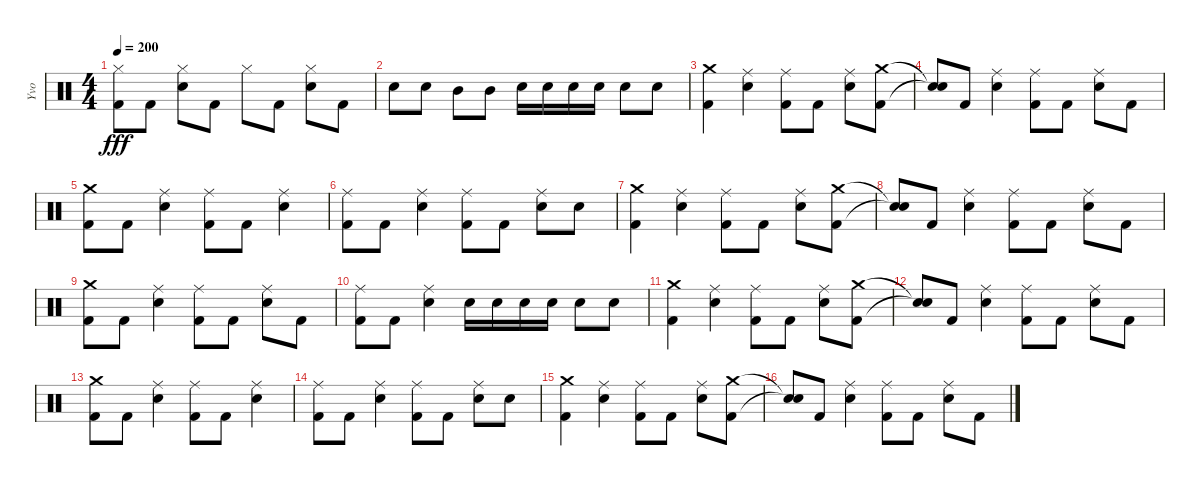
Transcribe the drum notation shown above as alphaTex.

\track ("Yvo" "Yvo") {instrument percussion}
\staff {score}
\articulation defaults
\ts (4 4)
\tempo 200
\clef neutral
\ks c
("Hi-Hat (closed)" "Kick (hit) 2").8{dy fff} "Kick (hit) 2".8 ("Hi-Hat (closed)" "Electric Snare (hit)").8 "Kick (hit) 2".8 "Hi-Hat (closed)".8 "Kick (hit) 2".8 ("Hi-Hat (closed)" "Electric Snare (hit)").8 "Kick (hit) 2".8 |
"Electric Snare (hit)".8 "Electric Snare (hit)".8 "Mid Tom (hit)".8 "Mid Tom (hit)".8 "Electric Snare (hit)".16 "Electric Snare (hit)".16 "Electric Snare (hit)".16 "Electric Snare (hit)".16 "Electric Snare (hit)".8 "Electric Snare (hit)".8 |
("Crash medium (hit)" "Kick (hit) 2").4 ("Ride (middle)" "Electric Snare (hit)").4 ("Ride (middle)" "Kick (hit) 2").8 "Kick (hit) 2".8 ("Ride (middle)" "Electric Snare (hit)").8 ("Crash medium (hit)" "Kick (hit) 2").8 |
("Snare (hit)"{t} "Snare (hit)"{t}).8 "Kick (hit) 2".8 ("Ride (middle)" "Electric Snare (hit)").4 ("Ride (middle)" "Kick (hit) 2").8 "Kick (hit) 2".8 ("Ride (middle)" "Electric Snare (hit)").8 "Kick (hit) 2".8 |
("Crash medium (hit)" "Kick (hit) 2").8 "Kick (hit) 2".8 ("Ride (middle)" "Electric Snare (hit)").4 ("Ride (middle)" "Kick (hit) 2").8 "Kick (hit) 2".8 ("Ride (middle)" "Electric Snare (hit)").4 |
("Ride (middle)" "Kick (hit) 2").8 "Kick (hit) 2".8 ("Ride (middle)" "Electric Snare (hit)").4 ("Ride (middle)" "Kick (hit) 2").8 "Kick (hit) 2".8 ("Ride (middle)" "Electric Snare (hit)").8 "Electric Snare (hit)".8 |
("Crash medium (hit)" "Kick (hit) 2").4 ("Ride (middle)" "Electric Snare (hit)").4 ("Ride (middle)" "Kick (hit) 2").8 "Kick (hit) 2".8 ("Ride (middle)" "Electric Snare (hit)").8 ("Crash medium (hit)" "Kick (hit) 2").8 |
("Snare (hit)"{t} "Snare (hit)"{t}).8 "Kick (hit) 2".8 ("Ride (middle)" "Electric Snare (hit)").4 ("Ride (middle)" "Kick (hit) 2").8 "Kick (hit) 2".8 ("Ride (middle)" "Electric Snare (hit)").8 "Kick (hit) 2".8 |
("Crash medium (hit)" "Kick (hit) 2").8 "Kick (hit) 2".8 ("Ride (middle)" "Electric Snare (hit)").4 ("Ride (middle)" "Kick (hit) 2").8 "Kick (hit) 2".8 ("Ride (middle)" "Electric Snare (hit)").8 "Kick (hit) 2".8 |
("Ride (middle)" "Kick (hit) 2").8 "Kick (hit) 2".8 ("Ride (middle)" "Electric Snare (hit)").4 "Electric Snare (hit)".16 "Electric Snare (hit)".16 "Electric Snare (hit)".16 "Electric Snare (hit)".16 "Electric Snare (hit)".8 "Electric Snare (hit)".8 |
("Crash medium (hit)" "Kick (hit) 2").4 ("Ride (middle)" "Electric Snare (hit)").4 ("Ride (middle)" "Kick (hit) 2").8 "Kick (hit) 2".8 ("Ride (middle)" "Electric Snare (hit)").8 ("Crash medium (hit)" "Kick (hit) 2").8 |
("Snare (hit)"{t} "Snare (hit)"{t}).8 "Kick (hit) 2".8 ("Ride (middle)" "Electric Snare (hit)").4 ("Ride (middle)" "Kick (hit) 2").8 "Kick (hit) 2".8 ("Ride (middle)" "Electric Snare (hit)").8 "Kick (hit) 2".8 |
("Crash medium (hit)" "Kick (hit) 2").8 "Kick (hit) 2".8 ("Ride (middle)" "Electric Snare (hit)").4 ("Ride (middle)" "Kick (hit) 2").8 "Kick (hit) 2".8 ("Ride (middle)" "Electric Snare (hit)").4 |
("Ride (middle)" "Kick (hit) 2").8 "Kick (hit) 2".8 ("Ride (middle)" "Electric Snare (hit)").4 ("Ride (middle)" "Kick (hit) 2").8 "Kick (hit) 2".8 ("Ride (middle)" "Electric Snare (hit)").8 "Electric Snare (hit)".8 |
("Crash medium (hit)" "Kick (hit) 2").4 ("Ride (middle)" "Electric Snare (hit)").4 ("Ride (middle)" "Kick (hit) 2").8 "Kick (hit) 2".8 ("Ride (middle)" "Electric Snare (hit)").8 ("Crash medium (hit)" "Kick (hit) 2").8 |
("Snare (hit)"{t} "Snare (hit)"{t}).8 "Kick (hit) 2".8 ("Ride (middle)" "Electric Snare (hit)").4 ("Ride (middle)" "Kick (hit) 2").8 "Kick (hit) 2".8 ("Ride (middle)" "Electric Snare (hit)").8 "Kick (hit) 2".8
